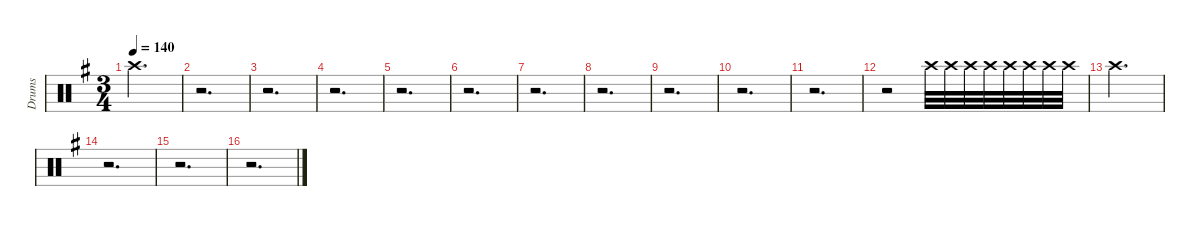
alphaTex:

\defaultSystemsLayout 8
\hideDynamics
\bracketExtendMode groupsimilarinstruments
\firstSystemTrackNameMode fullname
\otherSystemsTrackNameOrientation horizontal
\track ("Drums" "drm.") {defaultSystemsLayout 4 instrument percussion}
\staff {score}
\articulation defaults
\ts (3 4)
\tempo 140
\clef neutral
\ks g "Crash high (hit)"{acc forcenatural}.2{d dy ff beam Down}
|
r.2{d beam Down} |
r.2{d beam Down} |
r.2{d beam Down} |
r.2{d beam Down} |
r.2{d beam Down} |
r.2{d beam Down} |
r.2{d beam Down} |
r.2{d beam Down} |
r.2{d beam Down} |
r.2{d beam Down} |
r.2{beam Down} "Crash high (hit)"{acc forcenatural}.32{dy pp beam Down} "Crash high (hit)"{acc forcenatural}.32{beam Down} "Crash high (hit)"{acc forcenatural}.32{dy p beam Down} "Crash high (hit)"{acc forcenatural}.32{beam Down} "Crash high (hit)"{acc forcenatural}.32{dy mp beam Down} "Crash high (hit)"{acc forcenatural}.32{beam Down} "Crash high (hit)"{acc forcenatural}.32{dy mf beam Down} "Crash high (hit)"{acc forcenatural}.32{beam Down} |
"Crash high (hit)"{acc forcenatural}.2{d dy ff beam Down} |
r.2{d beam Down} |
r.2{d beam Down} |
r.2{d beam Down}
